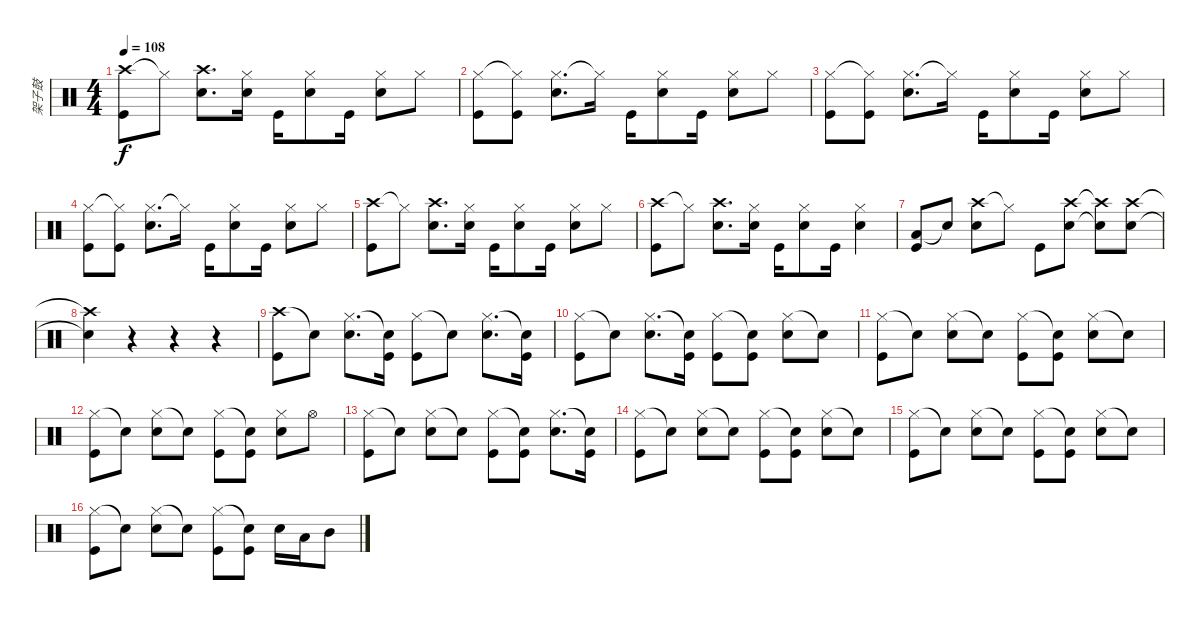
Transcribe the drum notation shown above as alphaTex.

\track ("架子鼓" "架子鼓") {instrument percussion}
\staff {score}
\articulation defaults
\ts (4 4)
\tempo 108
\clef neutral
\ks c
("Crash high (hit)" "Kick (hit)").8{dy f} "Hi-Hat (closed)"{t}.8 ("Crash high (hit)" "Snare (hit) 2").8{d} ("Hi-Hat (closed)" "Snare (hit) 2").16 "Kick (hit)".16 ("Hi-Hat (closed)" "Snare (hit) 2").8 "Kick (hit)".16 ("Hi-Hat (closed)" "Snare (hit) 2").8 "Hi-Hat (closed)".8 |
("Hi-Hat (closed)" "Kick (hit)").8 ("Hi-Hat (closed)"{t} "Kick (hit)").8 ("Hi-Hat (closed)" "Snare (hit) 2").8{d} "Hi-Hat (closed)"{t}.16 "Kick (hit)".16 ("Hi-Hat (closed)" "Snare (hit) 2").8 "Kick (hit)".16 ("Hi-Hat (closed)" "Snare (hit) 2").8 "Hi-Hat (closed)".8 |
("Hi-Hat (closed)" "Kick (hit)").8 ("Hi-Hat (closed)"{t} "Kick (hit)").8 ("Hi-Hat (closed)" "Snare (hit) 2").8{d} "Hi-Hat (closed)"{t}.16 "Kick (hit)".16 ("Hi-Hat (closed)" "Snare (hit) 2").8 "Kick (hit)".16 ("Hi-Hat (closed)" "Snare (hit) 2").8 "Hi-Hat (closed)".8 |
("Hi-Hat (closed)" "Kick (hit)").8 ("Hi-Hat (closed)"{t} "Kick (hit)").8 ("Hi-Hat (closed)" "Snare (hit) 2").8{d} "Hi-Hat (closed)"{t}.16 "Kick (hit)".16 ("Hi-Hat (closed)" "Snare (hit) 2").8 "Kick (hit)".16 ("Hi-Hat (closed)" "Snare (hit) 2").8 "Hi-Hat (closed)".8 |
("Crash high (hit)" "Kick (hit)").8 "Hi-Hat (closed)"{t}.8 ("Crash high (hit)" "Snare (hit) 2").8{d} ("Hi-Hat (closed)" "Snare (hit) 2").16 "Kick (hit)".16 ("Hi-Hat (closed)" "Snare (hit) 2").8 "Kick (hit)".16 ("Hi-Hat (closed)" "Snare (hit) 2").8 "Hi-Hat (closed)".8 |
("Crash high (hit)" "Kick (hit)").8 "Hi-Hat (closed)"{t}.8 ("Crash high (hit)" "Snare (hit) 2").8{d} ("Hi-Hat (closed)" "Snare (hit) 2").16 "Kick (hit)".16 ("Hi-Hat (closed)" "Snare (hit) 2").8 "Kick (hit)".16 ("Hi-Hat (closed)" "Snare (hit) 2").4 |
("Low Tom (hit)" "Kick (hit)").8 "Snare (hit)"{t}.8 ("Crash high (hit)" "Snare (hit) 2").8 "Hi-Hat (closed)"{t}.8 "Kick (hit)".8 ("Crash high (hit)" "Snare (hit) 2").8 ("Crash high (hit)"{t} "Snare (hit) 2"{t}).8 ("Crash high (hit)" "Snare (hit) 2").8 |
("Crash high (hit)"{t} "Snare (hit) 2"{t}).4 r.4 r.4 r.4 |
("Crash high (hit)" "Kick (hit)").8 "Snare (hit)"{t}.8 ("Hi-Hat (closed)" "Snare (hit) 2").8{d} ("Snare (hit)"{t} "Kick (hit)").16 ("Hi-Hat (closed)" "Kick (hit)").8 "Snare (hit)"{t}.8 ("Hi-Hat (closed)" "Snare (hit) 2").8{d} ("Snare (hit)"{t} "Kick (hit)").16 |
("Hi-Hat (closed)" "Kick (hit)").8 "Snare (hit)"{t}.8 ("Hi-Hat (closed)" "Snare (hit) 2").8{d} ("Snare (hit)"{t} "Kick (hit)").16 ("Hi-Hat (closed)" "Kick (hit)").8 ("Snare (hit)"{t} "Kick (hit)").8 ("Hi-Hat (closed)" "Snare (hit) 2").8 "Snare (hit)"{t}.8 |
("Hi-Hat (closed)" "Kick (hit)").8 "Snare (hit)"{t}.8 ("Hi-Hat (closed)" "Snare (hit) 2").8 "Snare (hit)"{t}.8 ("Hi-Hat (closed)" "Kick (hit)").8 ("Snare (hit)"{t} "Kick (hit)").8 ("Hi-Hat (closed)" "Snare (hit) 2").8 "Snare (hit)"{t}.8 |
("Hi-Hat (closed)" "Kick (hit)").8 "Snare (hit)"{t}.8 ("Hi-Hat (closed)" "Snare (hit) 2").8 "Snare (hit)"{t}.8 ("Hi-Hat (closed)" "Kick (hit)").8 ("Snare (hit)"{t} "Kick (hit)").8 ("Hi-Hat (closed)" "Snare (hit) 2").8 "Hi-Hat (open)".8 |
("Hi-Hat (closed)" "Kick (hit)").8 "Snare (hit)"{t}.8 ("Hi-Hat (closed)" "Snare (hit) 2").8 "Snare (hit)"{t}.8 ("Hi-Hat (closed)" "Kick (hit)").8 ("Snare (hit)"{t} "Kick (hit)").8 ("Hi-Hat (closed)" "Snare (hit) 2").8{d} ("Snare (hit)"{t} "Kick (hit)").16 |
("Hi-Hat (closed)" "Kick (hit)").8 "Snare (hit)"{t}.8 ("Hi-Hat (closed)" "Snare (hit) 2").8 "Snare (hit)"{t}.8 ("Hi-Hat (closed)" "Kick (hit)").8 ("Snare (hit)"{t} "Kick (hit)").8 ("Hi-Hat (closed)" "Snare (hit) 2").8 "Snare (hit)"{t}.8 |
("Hi-Hat (closed)" "Kick (hit)").8 "Snare (hit)"{t}.8 ("Hi-Hat (closed)" "Snare (hit) 2").8 "Snare (hit)"{t}.8 ("Hi-Hat (closed)" "Kick (hit)").8 ("Snare (hit)"{t} "Kick (hit)").8 ("Hi-Hat (closed)" "Snare (hit) 2").8 "Snare (hit)"{t}.8 |
("Hi-Hat (closed)" "Kick (hit)").8 "Snare (hit)"{t}.8 ("Hi-Hat (closed)" "Snare (hit) 2").8 "Snare (hit)"{t}.8 ("Hi-Hat (closed)" "Kick (hit)").8 ("Snare (hit)"{t} "Kick (hit)").8 "Snare (hit) 2".16 "Low Tom (hit)".16 "Mid Tom (hit)".8
